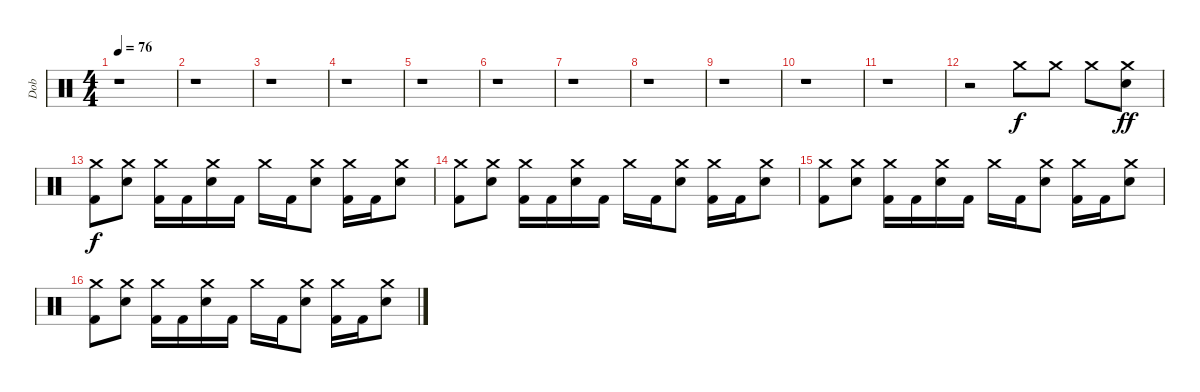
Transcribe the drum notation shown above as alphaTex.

\track ("Dob" "Dob") {instrument percussion}
\staff {score}
\articulation defaults
\ts (4 4)
\tempo 76
\clef neutral
\ks c
r.1{dy f} |
r.1 |
r.1 |
r.1 |
r.1 |
r.1 |
r.1 |
r.1 |
r.1 |
r.1 |
r.1 |
r.2 "Crash medium (hit)".8 "Crash medium (hit)".8 "Crash medium (hit)".8 ("Electric Snare (hit)" "Crash medium (hit)").8{dy ff} |
("Kick (hit) 2" "Crash medium (hit)").8{dy f} ("Electric Snare (hit)" "Crash medium (hit)").8 ("Kick (hit) 2" "Crash medium (hit)").16 "Kick (hit) 2".16 ("Electric Snare (hit)" "Crash medium (hit)").16 "Kick (hit) 2".16 "Crash medium (hit)".16 "Kick (hit) 2".16 ("Electric Snare (hit)" "Crash medium (hit)").8 ("Kick (hit) 2" "Crash medium (hit)").16 "Kick (hit) 2".16 ("Electric Snare (hit)" "Crash medium (hit)").8 |
("Kick (hit) 2" "Crash medium (hit)").8 ("Electric Snare (hit)" "Crash medium (hit)").8 ("Kick (hit) 2" "Crash medium (hit)").16 "Kick (hit) 2".16 ("Electric Snare (hit)" "Crash medium (hit)").16 "Kick (hit) 2".16 "Crash medium (hit)".16 "Kick (hit) 2".16 ("Electric Snare (hit)" "Crash medium (hit)").8 ("Kick (hit) 2" "Crash medium (hit)").16 "Kick (hit) 2".16 ("Electric Snare (hit)" "Crash medium (hit)").8 |
("Kick (hit) 2" "Crash medium (hit)").8 ("Electric Snare (hit)" "Crash medium (hit)").8 ("Kick (hit) 2" "Crash medium (hit)").16 "Kick (hit) 2".16 ("Electric Snare (hit)" "Crash medium (hit)").16 "Kick (hit) 2".16 "Crash medium (hit)".16 "Kick (hit) 2".16 ("Electric Snare (hit)" "Crash medium (hit)").8 ("Kick (hit) 2" "Crash medium (hit)").16 "Kick (hit) 2".16 ("Electric Snare (hit)" "Crash medium (hit)").8 |
("Kick (hit) 2" "Crash medium (hit)").8 ("Electric Snare (hit)" "Crash medium (hit)").8 ("Kick (hit) 2" "Crash medium (hit)").16 "Kick (hit) 2".16 ("Electric Snare (hit)" "Crash medium (hit)").16 "Kick (hit) 2".16 "Crash medium (hit)".16 "Kick (hit) 2".16 ("Electric Snare (hit)" "Crash medium (hit)").8 ("Kick (hit) 2" "Crash medium (hit)").16 "Kick (hit) 2".16 ("Electric Snare (hit)" "Crash medium (hit)").8
